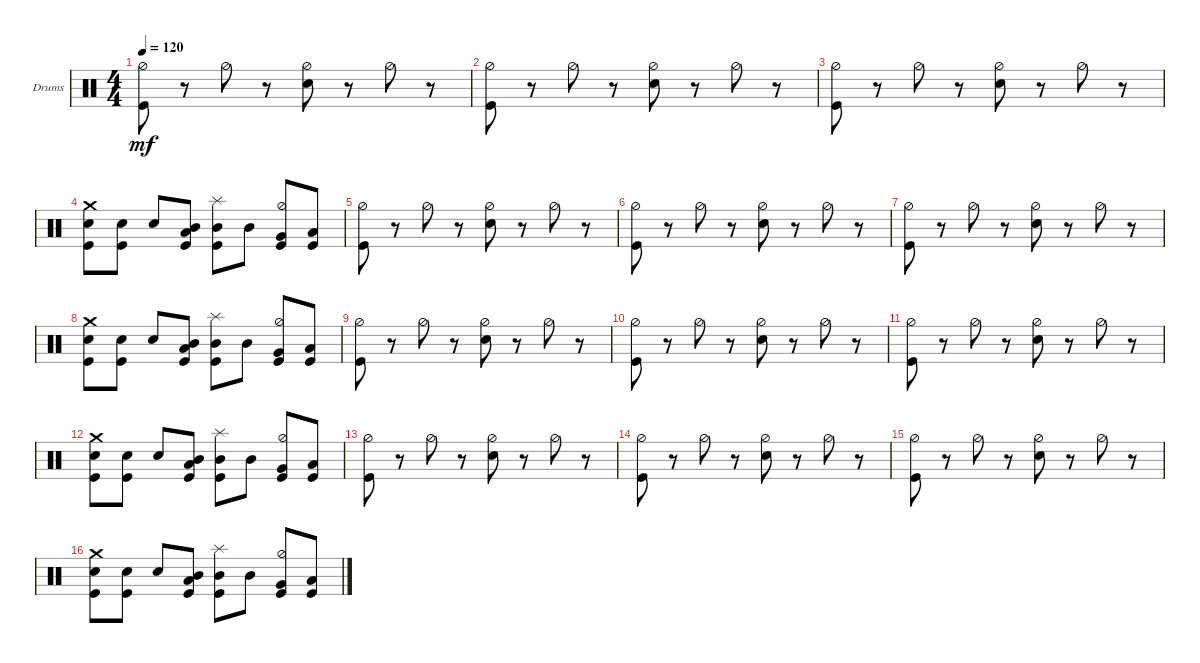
\bracketExtendMode groupsimilarinstruments
\firstSystemTrackNameOrientation horizontal
\otherSystemsTrackNameOrientation horizontal
\track ("Drumkit" "Drums") {instrument percussion}
\staff {score}
\articulation defaults
\ts (4 4)
\tempo 120
\clef neutral
\ks c
("Kick (hit)" "Hi-Hat (half)").8{dy mf} r.8 "Hi-Hat (half)".8 r.8 ("Snare (hit) 2" "Hi-Hat (half)").8 r.8 "Hi-Hat (half)".8 r.8 |
("Kick (hit)" "Hi-Hat (half)").8 r.8 "Hi-Hat (half)".8 r.8 ("Snare (hit) 2" "Hi-Hat (half)").8 r.8 "Hi-Hat (half)".8 r.8 |
("Kick (hit)" "Hi-Hat (half)").8 r.8 "Hi-Hat (half)".8 r.8 ("Snare (hit) 2" "Hi-Hat (half)").8 r.8 "Hi-Hat (half)".8 r.8 |
("Kick (hit)" "Snare (hit) 2" "Crash medium (hit)").8 ("Snare (hit) 2" "Kick (hit)").8 "Snare (hit) 2".8 ("Kick (hit)" "Low Tom (hit)" "Mid Tom (hit)").8 ("Kick (hit)" "Mid Tom (hit)" "Splash (hit)").8 "Mid Tom (hit)".8 ("Kick (hit)" "Hi-Hat (half)" "Very Low Tom (hit)").8 ("Kick (hit)" "Low Tom (hit)").8 |
("Kick (hit)" "Hi-Hat (half)").8 r.8 "Hi-Hat (half)".8 r.8 ("Snare (hit) 2" "Hi-Hat (half)").8 r.8 "Hi-Hat (half)".8 r.8 |
("Kick (hit)" "Hi-Hat (half)").8 r.8 "Hi-Hat (half)".8 r.8 ("Snare (hit) 2" "Hi-Hat (half)").8 r.8 "Hi-Hat (half)".8 r.8 |
("Kick (hit)" "Hi-Hat (half)").8 r.8 "Hi-Hat (half)".8 r.8 ("Snare (hit) 2" "Hi-Hat (half)").8 r.8 "Hi-Hat (half)".8 r.8 |
("Kick (hit)" "Snare (hit) 2" "Crash medium (hit)").8 ("Snare (hit) 2" "Kick (hit)").8 "Snare (hit) 2".8 ("Kick (hit)" "Low Tom (hit)" "Mid Tom (hit)").8 ("Kick (hit)" "Mid Tom (hit)" "Splash (hit)").8 "Mid Tom (hit)".8 ("Kick (hit)" "Hi-Hat (half)" "Very Low Tom (hit)").8 ("Kick (hit)" "Low Tom (hit)").8 |
("Kick (hit)" "Hi-Hat (half)").8 r.8 "Hi-Hat (half)".8 r.8 ("Snare (hit) 2" "Hi-Hat (half)").8 r.8 "Hi-Hat (half)".8 r.8 |
("Kick (hit)" "Hi-Hat (half)").8 r.8 "Hi-Hat (half)".8 r.8 ("Snare (hit) 2" "Hi-Hat (half)").8 r.8 "Hi-Hat (half)".8 r.8 |
("Kick (hit)" "Hi-Hat (half)").8 r.8 "Hi-Hat (half)".8 r.8 ("Snare (hit) 2" "Hi-Hat (half)").8 r.8 "Hi-Hat (half)".8 r.8 |
("Kick (hit)" "Snare (hit) 2" "Crash medium (hit)").8 ("Snare (hit) 2" "Kick (hit)").8 "Snare (hit) 2".8 ("Kick (hit)" "Low Tom (hit)" "Mid Tom (hit)").8 ("Kick (hit)" "Mid Tom (hit)" "Splash (hit)").8 "Mid Tom (hit)".8 ("Kick (hit)" "Hi-Hat (half)" "Very Low Tom (hit)").8 ("Kick (hit)" "Low Tom (hit)").8 |
("Kick (hit)" "Hi-Hat (half)").8 r.8 "Hi-Hat (half)".8 r.8 ("Snare (hit) 2" "Hi-Hat (half)").8 r.8 "Hi-Hat (half)".8 r.8 |
("Kick (hit)" "Hi-Hat (half)").8 r.8 "Hi-Hat (half)".8 r.8 ("Snare (hit) 2" "Hi-Hat (half)").8 r.8 "Hi-Hat (half)".8 r.8 |
("Kick (hit)" "Hi-Hat (half)").8 r.8 "Hi-Hat (half)".8 r.8 ("Snare (hit) 2" "Hi-Hat (half)").8 r.8 "Hi-Hat (half)".8 r.8 |
("Kick (hit)" "Snare (hit) 2" "Crash medium (hit)").8 ("Snare (hit) 2" "Kick (hit)").8 "Snare (hit) 2".8 ("Kick (hit)" "Low Tom (hit)" "Mid Tom (hit)").8 ("Kick (hit)" "Mid Tom (hit)" "Splash (hit)").8 "Mid Tom (hit)".8 ("Kick (hit)" "Hi-Hat (half)" "Very Low Tom (hit)").8 ("Kick (hit)" "Low Tom (hit)").8
